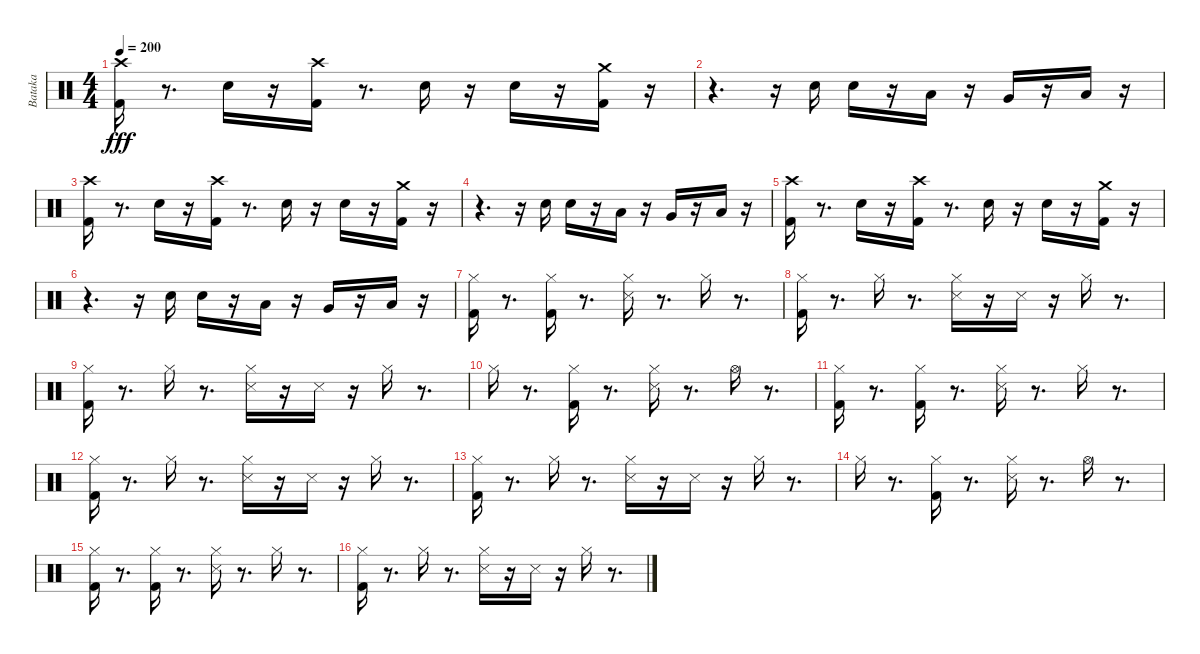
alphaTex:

\track ("Bataka" "Bataka") {instrument percussion}
\staff {score}
\articulation defaults
\ts (4 4)
\tempo 200
\clef neutral
\ks c
("Crash high (hit)" "Kick (hit) 2").16{dy fff} r.8{d} "Electric Snare (hit)".16 r.16 ("Crash high (hit)" "Kick (hit) 2").16 r.8{d} "Electric Snare (hit)".16 r.16 "Electric Snare (hit)".16 r.16 ("Kick (hit) 2" "Crash medium (hit)").16 r.16 |
r.4{d} r.16 "Electric Snare (hit)".16 "Electric Snare (hit)".16 r.16 "Low Floor Tom (hit)".16 r.16 "Very Low Tom (hit)".16 r.16 "Low Tom (hit)".16 r.16 |
("Crash high (hit)" "Kick (hit) 2").16 r.8{d} "Electric Snare (hit)".16 r.16 ("Crash high (hit)" "Kick (hit) 2").16 r.8{d} "Electric Snare (hit)".16 r.16 "Electric Snare (hit)".16 r.16 ("Kick (hit) 2" "Crash medium (hit)").16 r.16 |
r.4{d} r.16 "Electric Snare (hit)".16 "Electric Snare (hit)".16 r.16 "Low Floor Tom (hit)".16 r.16 "Very Low Tom (hit)".16 r.16 "Low Tom (hit)".16 r.16 |
("Crash high (hit)" "Kick (hit) 2").16 r.8{d} "Electric Snare (hit)".16 r.16 ("Crash high (hit)" "Kick (hit) 2").16 r.8{d} "Electric Snare (hit)".16 r.16 "Electric Snare (hit)".16 r.16 ("Kick (hit) 2" "Crash medium (hit)").16 r.16 |
r.4{d} r.16 "Electric Snare (hit)".16 "Electric Snare (hit)".16 r.16 "Low Floor Tom (hit)".16 r.16 "Very Low Tom (hit)".16 r.16 "Low Tom (hit)".16 r.16 |
("Kick (hit) 2" "Hi-Hat (closed)").16 r.8{d} ("Kick (hit) 2" "Hi-Hat (closed)").16 r.8{d} ("Hi-Hat (closed)" "Snare (side stick) 3").16 r.8{d} "Hi-Hat (closed)".16 r.8{d} |
("Hi-Hat (closed)" "Kick (hit) 2").16 r.8{d} "Hi-Hat (closed)".16 r.8{d} ("Hi-Hat (closed)" "Snare (side stick) 3").16 r.16 "Snare (side stick) 3".16 r.16 "Hi-Hat (closed)".16 r.8{d} |
("Hi-Hat (closed)" "Kick (hit) 2").16 r.8{d} "Hi-Hat (closed)".16 r.8{d} ("Hi-Hat (closed)" "Snare (side stick) 3").16 r.16 "Snare (side stick) 3".16 r.16 "Hi-Hat (closed)".16 r.8{d} |
"Hi-Hat (closed)".16 r.8{d} ("Hi-Hat (closed)" "Kick (hit) 2").16 r.8{d} ("Snare (side stick) 3" "Hi-Hat (closed)").16 r.8{d} "Hi-Hat (open)".16 r.8{d} |
("Kick (hit) 2" "Hi-Hat (closed)").16 r.8{d} ("Kick (hit) 2" "Hi-Hat (closed)").16 r.8{d} ("Hi-Hat (closed)" "Snare (side stick) 3").16 r.8{d} "Hi-Hat (closed)".16 r.8{d} |
("Hi-Hat (closed)" "Kick (hit) 2").16 r.8{d} "Hi-Hat (closed)".16 r.8{d} ("Hi-Hat (closed)" "Snare (side stick) 3").16 r.16 "Snare (side stick) 3".16 r.16 "Hi-Hat (closed)".16 r.8{d} |
("Hi-Hat (closed)" "Kick (hit) 2").16 r.8{d} "Hi-Hat (closed)".16 r.8{d} ("Hi-Hat (closed)" "Snare (side stick) 3").16 r.16 "Snare (side stick) 3".16 r.16 "Hi-Hat (closed)".16 r.8{d} |
"Hi-Hat (closed)".16 r.8{d} ("Hi-Hat (closed)" "Kick (hit) 2").16 r.8{d} ("Snare (side stick) 3" "Hi-Hat (closed)").16 r.8{d} "Hi-Hat (open)".16 r.8{d} |
("Kick (hit) 2" "Hi-Hat (closed)").16 r.8{d} ("Kick (hit) 2" "Hi-Hat (closed)").16 r.8{d} ("Hi-Hat (closed)" "Snare (side stick) 3").16 r.8{d} "Hi-Hat (closed)".16 r.8{d} |
("Hi-Hat (closed)" "Kick (hit) 2").16 r.8{d} "Hi-Hat (closed)".16 r.8{d} ("Hi-Hat (closed)" "Snare (side stick) 3").16 r.16 "Snare (side stick) 3".16 r.16 "Hi-Hat (closed)".16 r.8{d}
